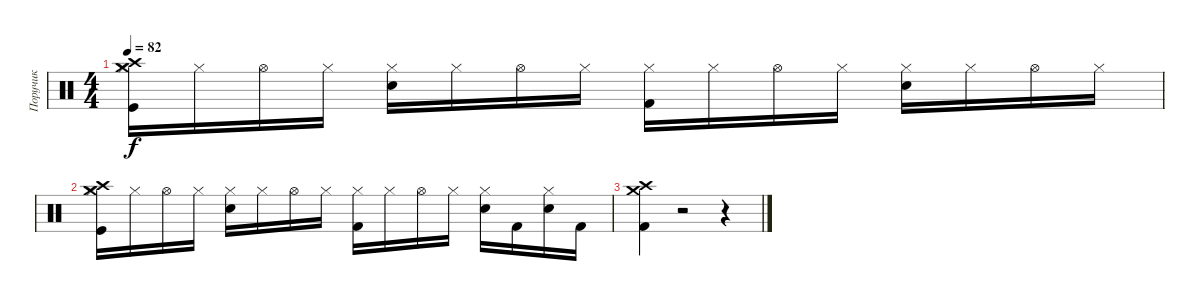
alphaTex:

\track ("Поручик" "Поручик") {instrument percussion}
\staff {score}
\articulation defaults
\ts (4 4)
\tempo 82
\clef neutral
\ks c
("Hi-Hat (closed)" "Kick (hit)" "Crash medium (hit)" "Crash high (hit)").16{dy f} "Hi-Hat (closed)".16 "Hi-Hat (open)".16 "Hi-Hat (closed)".16 ("Hi-Hat (closed)" "Snare (hit) 2").16 "Hi-Hat (closed)".16 "Hi-Hat (open)".16 "Hi-Hat (closed)".16 ("Hi-Hat (closed)" "Kick (hit) 2").16 "Hi-Hat (closed)".16 "Hi-Hat (open)".16 "Hi-Hat (closed)".16 ("Hi-Hat (closed)" "Snare (hit) 2").16 "Hi-Hat (closed)".16 "Hi-Hat (open)".16 "Hi-Hat (closed)".16 |
("Crash medium (hit)" "Crash high (hit)" "Hi-Hat (closed)" "Kick (hit)").16 "Hi-Hat (closed)".16 "Hi-Hat (open)".16 "Hi-Hat (closed)".16 ("Hi-Hat (closed)" "Snare (hit) 2").16 "Hi-Hat (closed)".16 "Hi-Hat (open)".16 "Hi-Hat (closed)".16 ("Kick (hit) 2" "Hi-Hat (closed)").16 "Hi-Hat (closed)".16 "Hi-Hat (open)".16 "Hi-Hat (closed)".16 ("Hi-Hat (closed)" "Snare (hit) 2").16 "Kick (hit) 2".16 ("Snare (hit) 2" "Hi-Hat (closed)").16 "Kick (hit) 2".16 |
("Crash medium (hit)" "Kick (hit) 2" "Crash high (hit)").4 r.2 r.4
